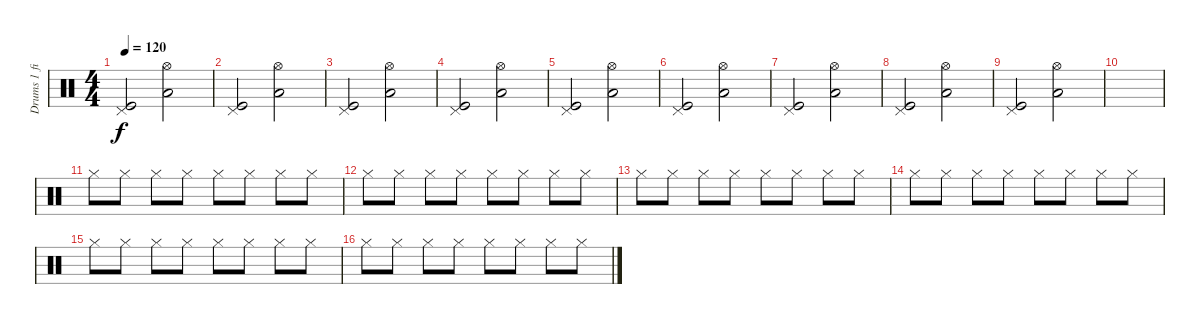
\track ("Drums 1 filler" "Drums 1 fi") {instrument percussion}
\staff {score}
\articulation defaults
\ts (4 4)
\tempo 120
\clef neutral
\ks c
("Kick (hit)" "Pedal Hi-Hat (hit)").2{dy f} ("Low Tom (hit)" "Hi-Hat (open)").2 |
("Kick (hit)" "Pedal Hi-Hat (hit)").2 ("Low Tom (hit)" "Hi-Hat (open)").2 |
("Kick (hit)" "Pedal Hi-Hat (hit)").2 ("Low Tom (hit)" "Hi-Hat (open)").2 |
("Kick (hit)" "Pedal Hi-Hat (hit)").2 ("Low Tom (hit)" "Hi-Hat (open)").2 |
("Kick (hit)" "Pedal Hi-Hat (hit)").2 ("Low Tom (hit)" "Hi-Hat (open)").2 |
("Kick (hit)" "Pedal Hi-Hat (hit)").2 ("Low Tom (hit)" "Hi-Hat (open)").2 |
("Kick (hit)" "Pedal Hi-Hat (hit)").2 ("Low Tom (hit)" "Hi-Hat (open)").2 |
("Kick (hit)" "Pedal Hi-Hat (hit)").2 ("Low Tom (hit)" "Hi-Hat (open)").2 |
("Kick (hit)" "Pedal Hi-Hat (hit)").2 ("Low Tom (hit)" "Hi-Hat (open)").2 |
|
"Hi-Hat (closed)".8 "Hi-Hat (closed)".8 "Hi-Hat (closed)".8 "Hi-Hat (closed)".8 "Hi-Hat (closed)".8 "Hi-Hat (closed)".8 "Hi-Hat (closed)".8 "Hi-Hat (closed)".8 |
"Hi-Hat (closed)".8 "Hi-Hat (closed)".8 "Hi-Hat (closed)".8 "Hi-Hat (closed)".8 "Hi-Hat (closed)".8 "Hi-Hat (closed)".8 "Hi-Hat (closed)".8 "Hi-Hat (closed)".8 |
"Hi-Hat (closed)".8 "Hi-Hat (closed)".8 "Hi-Hat (closed)".8 "Hi-Hat (closed)".8 "Hi-Hat (closed)".8 "Hi-Hat (closed)".8 "Hi-Hat (closed)".8 "Hi-Hat (closed)".8 |
"Hi-Hat (closed)".8 "Hi-Hat (closed)".8 "Hi-Hat (closed)".8 "Hi-Hat (closed)".8 "Hi-Hat (closed)".8 "Hi-Hat (closed)".8 "Hi-Hat (closed)".8 "Hi-Hat (closed)".8 |
"Hi-Hat (closed)".8 "Hi-Hat (closed)".8 "Hi-Hat (closed)".8 "Hi-Hat (closed)".8 "Hi-Hat (closed)".8 "Hi-Hat (closed)".8 "Hi-Hat (closed)".8 "Hi-Hat (closed)".8 |
"Hi-Hat (closed)".8 "Hi-Hat (closed)".8 "Hi-Hat (closed)".8 "Hi-Hat (closed)".8 "Hi-Hat (closed)".8 "Hi-Hat (closed)".8 "Hi-Hat (closed)".8 "Hi-Hat (closed)".8
